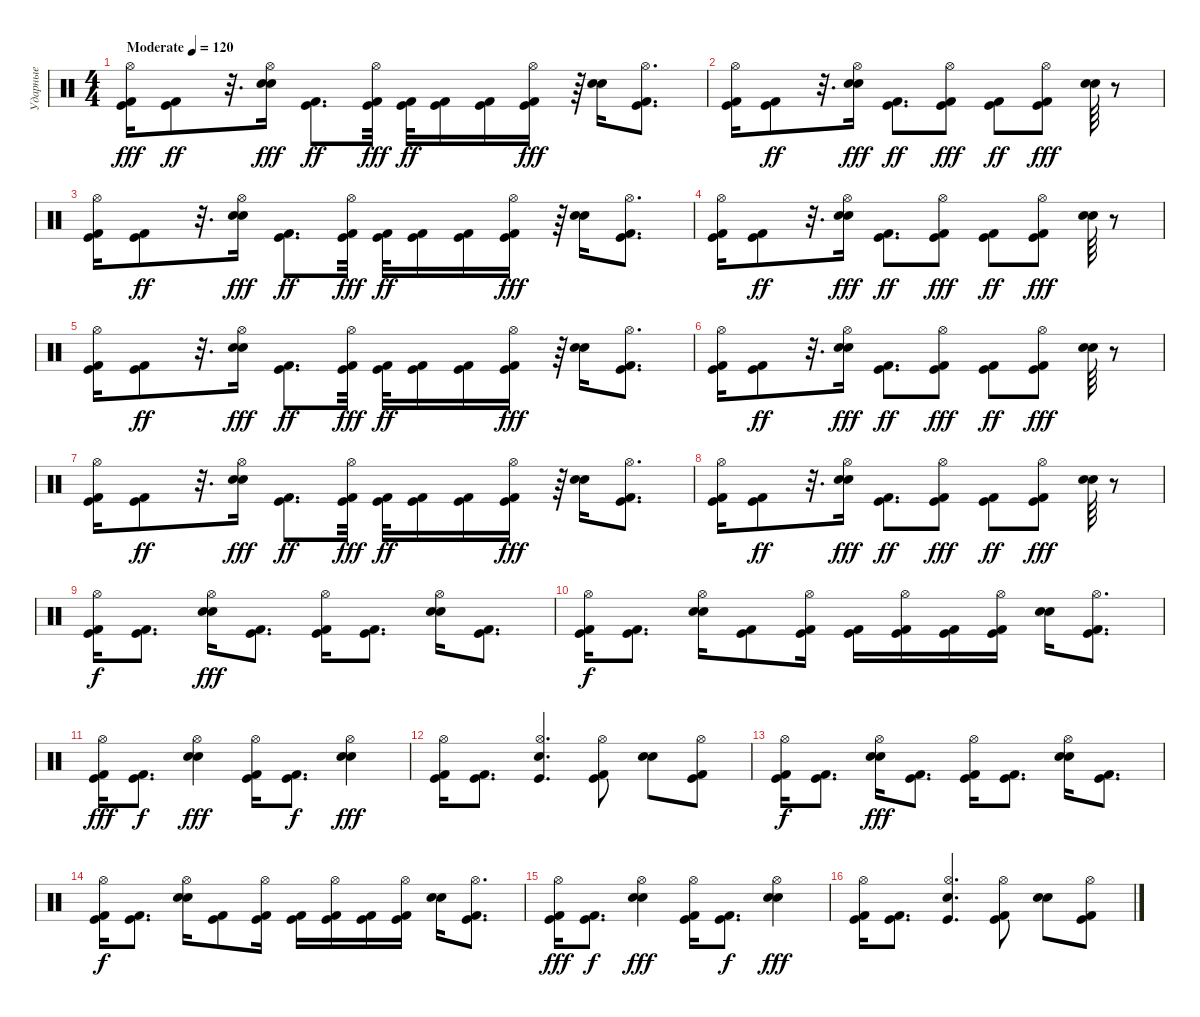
\track ("Ударные" "Ударные") {instrument percussion}
\staff {score}
\articulation defaults
\ts (4 4)
\tempo (120 "Moderate")
\clef neutral
\ks c
("Kick (hit) 2" "Kick (hit)" "Hi-Hat (open)").16{dy fff} ("Kick (hit) 2" "Kick (hit)").8{dy ff} r.32{d} ("Electric Snare (hit)" "Snare (hit) 2" "Hi-Hat (open)").16{dy fff} ("Kick (hit) 2" "Kick (hit)").8{d dy ff} ("Kick (hit) 2" "Kick (hit)" "Hi-Hat (open)").32{dy fff} ("Kick (hit) 2" "Kick (hit)").32{dy ff} ("Kick (hit) 2" "Kick (hit)").16 ("Kick (hit) 2" "Kick (hit)").16 ("Kick (hit) 2" "Kick (hit)" "Hi-Hat (open)").16{dy fff} r.64 ("Snare (hit) 2" "Electric Snare (hit)").16 ("Kick (hit) 2" "Kick (hit)" "Hi-Hat (open)").8{d} |
("Kick (hit) 2" "Kick (hit)" "Hi-Hat (open)").16 ("Kick (hit) 2" "Kick (hit)").8{dy ff} r.32{d} ("Electric Snare (hit)" "Snare (hit) 2" "Hi-Hat (open)").16{dy fff} ("Kick (hit) 2" "Kick (hit)").8{d dy ff} ("Kick (hit) 2" "Kick (hit)" "Hi-Hat (open)").8{dy fff} ("Kick (hit) 2" "Kick (hit)").8{dy ff} ("Kick (hit)" "Kick (hit) 2" "Hi-Hat (open)").8{dy fff} ("Electric Snare (hit)" "Snare (hit) 2").64 r.8 |
("Kick (hit) 2" "Kick (hit)" "Hi-Hat (open)").16 ("Kick (hit) 2" "Kick (hit)").8{dy ff} r.32{d} ("Electric Snare (hit)" "Snare (hit) 2" "Hi-Hat (open)").16{dy fff} ("Kick (hit) 2" "Kick (hit)").8{d dy ff} ("Kick (hit) 2" "Kick (hit)" "Hi-Hat (open)").32{dy fff} ("Kick (hit) 2" "Kick (hit)").32{dy ff} ("Kick (hit) 2" "Kick (hit)").16 ("Kick (hit) 2" "Kick (hit)").16 ("Kick (hit) 2" "Kick (hit)" "Hi-Hat (open)").16{dy fff} r.64 ("Snare (hit) 2" "Electric Snare (hit)").16 ("Kick (hit) 2" "Kick (hit)" "Hi-Hat (open)").8{d} |
("Kick (hit) 2" "Kick (hit)" "Hi-Hat (open)").16 ("Kick (hit) 2" "Kick (hit)").8{dy ff} r.32{d} ("Electric Snare (hit)" "Snare (hit) 2" "Hi-Hat (open)").16{dy fff} ("Kick (hit) 2" "Kick (hit)").8{d dy ff} ("Kick (hit) 2" "Kick (hit)" "Hi-Hat (open)").8{dy fff} ("Kick (hit) 2" "Kick (hit)").8{dy ff} ("Kick (hit)" "Kick (hit) 2" "Hi-Hat (open)").8{dy fff} ("Electric Snare (hit)" "Snare (hit) 2").64 r.8 |
("Kick (hit) 2" "Kick (hit)" "Hi-Hat (open)").16 ("Kick (hit) 2" "Kick (hit)").8{dy ff} r.32{d} ("Electric Snare (hit)" "Snare (hit) 2" "Hi-Hat (open)").16{dy fff} ("Kick (hit) 2" "Kick (hit)").8{d dy ff} ("Kick (hit) 2" "Kick (hit)" "Hi-Hat (open)").32{dy fff} ("Kick (hit) 2" "Kick (hit)").32{dy ff} ("Kick (hit) 2" "Kick (hit)").16 ("Kick (hit) 2" "Kick (hit)").16 ("Kick (hit) 2" "Kick (hit)" "Hi-Hat (open)").16{dy fff} r.64 ("Snare (hit) 2" "Electric Snare (hit)").16 ("Kick (hit) 2" "Kick (hit)" "Hi-Hat (open)").8{d} |
("Kick (hit) 2" "Kick (hit)" "Hi-Hat (open)").16 ("Kick (hit) 2" "Kick (hit)").8{dy ff} r.32{d} ("Electric Snare (hit)" "Snare (hit) 2" "Hi-Hat (open)").16{dy fff} ("Kick (hit) 2" "Kick (hit)").8{d dy ff} ("Kick (hit) 2" "Kick (hit)" "Hi-Hat (open)").8{dy fff} ("Kick (hit) 2" "Kick (hit)").8{dy ff} ("Kick (hit)" "Kick (hit) 2" "Hi-Hat (open)").8{dy fff} ("Electric Snare (hit)" "Snare (hit) 2").64 r.8 |
("Kick (hit) 2" "Kick (hit)" "Hi-Hat (open)").16 ("Kick (hit) 2" "Kick (hit)").8{dy ff} r.32{d} ("Electric Snare (hit)" "Snare (hit) 2" "Hi-Hat (open)").16{dy fff} ("Kick (hit) 2" "Kick (hit)").8{d dy ff} ("Kick (hit) 2" "Kick (hit)" "Hi-Hat (open)").32{dy fff} ("Kick (hit) 2" "Kick (hit)").32{dy ff} ("Kick (hit) 2" "Kick (hit)").16 ("Kick (hit) 2" "Kick (hit)").16 ("Kick (hit) 2" "Kick (hit)" "Hi-Hat (open)").16{dy fff} r.64 ("Snare (hit) 2" "Electric Snare (hit)").16 ("Kick (hit) 2" "Kick (hit)" "Hi-Hat (open)").8{d} |
("Kick (hit) 2" "Kick (hit)" "Hi-Hat (open)").16 ("Kick (hit) 2" "Kick (hit)").8{dy ff} r.32{d} ("Electric Snare (hit)" "Snare (hit) 2" "Hi-Hat (open)").16{dy fff} ("Kick (hit) 2" "Kick (hit)").8{d dy ff} ("Kick (hit) 2" "Kick (hit)" "Hi-Hat (open)").8{dy fff} ("Kick (hit) 2" "Kick (hit)").8{dy ff} ("Kick (hit)" "Kick (hit) 2" "Hi-Hat (open)").8{dy fff} ("Electric Snare (hit)" "Snare (hit) 2").64 r.8 |
("Kick (hit) 2" "Kick (hit)" "Hi-Hat (open)").16{dy f} ("Kick (hit) 2" "Kick (hit)").8{d} ("Snare (hit) 2" "Electric Snare (hit)" "Hi-Hat (open)").16{dy fff} ("Kick (hit) 2" "Kick (hit)").8{d} ("Kick (hit) 2" "Kick (hit)" "Hi-Hat (open)").16 ("Kick (hit) 2" "Kick (hit)").8{d} ("Snare (hit) 2" "Electric Snare (hit)" "Hi-Hat (open)").16 ("Kick (hit) 2" "Kick (hit)").8{d} |
("Kick (hit) 2" "Kick (hit)" "Hi-Hat (open)").16{dy f} ("Kick (hit) 2" "Kick (hit)").8{d} ("Snare (hit) 2" "Electric Snare (hit)" "Hi-Hat (open)").16 ("Kick (hit) 2" "Kick (hit)").8 ("Kick (hit) 2" "Kick (hit)" "Hi-Hat (open)").16 ("Kick (hit) 2" "Kick (hit)").16 ("Kick (hit) 2" "Kick (hit)" "Hi-Hat (open)").16 ("Kick (hit) 2" "Kick (hit)").16 ("Kick (hit) 2" "Kick (hit)" "Hi-Hat (open)").16 ("Snare (hit) 2" "Electric Snare (hit)").16 ("Kick (hit) 2" "Kick (hit)" "Hi-Hat (open)").8{d} |
("Kick (hit) 2" "Kick (hit)" "Hi-Hat (open)").16{dy fff} ("Kick (hit) 2" "Kick (hit)").8{d dy f} ("Snare (hit) 2" "Electric Snare (hit)" "Hi-Hat (open)").4{dy fff} ("Kick (hit) 2" "Kick (hit)" "Hi-Hat (open)").16 ("Kick (hit) 2" "Kick (hit)").8{d dy f} ("Snare (hit) 2" "Electric Snare (hit)" "Hi-Hat (open)").4{dy fff} |
("Kick (hit) 2" "Kick (hit)" "Hi-Hat (open)").16 ("Kick (hit) 2" "Kick (hit)").8{d} ("Kick (hit)" "Electric Snare (hit)" "Hi-Hat (open)").4{d} ("Kick (hit) 2" "Kick (hit)" "Hi-Hat (open)").8 ("Snare (hit) 2" "Electric Snare (hit)").8 ("Kick (hit) 2" "Kick (hit)" "Hi-Hat (open)").8 |
("Kick (hit) 2" "Kick (hit)" "Hi-Hat (open)").16{dy f} ("Kick (hit) 2" "Kick (hit)").8{d} ("Snare (hit) 2" "Electric Snare (hit)" "Hi-Hat (open)").16{dy fff} ("Kick (hit) 2" "Kick (hit)").8{d} ("Kick (hit) 2" "Kick (hit)" "Hi-Hat (open)").16 ("Kick (hit) 2" "Kick (hit)").8{d} ("Snare (hit) 2" "Electric Snare (hit)" "Hi-Hat (open)").16 ("Kick (hit) 2" "Kick (hit)").8{d} |
("Kick (hit) 2" "Kick (hit)" "Hi-Hat (open)").16{dy f} ("Kick (hit) 2" "Kick (hit)").8{d} ("Snare (hit) 2" "Electric Snare (hit)" "Hi-Hat (open)").16 ("Kick (hit) 2" "Kick (hit)").8 ("Kick (hit) 2" "Kick (hit)" "Hi-Hat (open)").16 ("Kick (hit) 2" "Kick (hit)").16 ("Kick (hit) 2" "Kick (hit)" "Hi-Hat (open)").16 ("Kick (hit) 2" "Kick (hit)").16 ("Kick (hit) 2" "Kick (hit)" "Hi-Hat (open)").16 ("Snare (hit) 2" "Electric Snare (hit)").16 ("Kick (hit) 2" "Kick (hit)" "Hi-Hat (open)").8{d} |
("Kick (hit) 2" "Kick (hit)" "Hi-Hat (open)").16{dy fff} ("Kick (hit) 2" "Kick (hit)").8{d dy f} ("Snare (hit) 2" "Electric Snare (hit)" "Hi-Hat (open)").4{dy fff} ("Kick (hit) 2" "Kick (hit)" "Hi-Hat (open)").16 ("Kick (hit) 2" "Kick (hit)").8{d dy f} ("Snare (hit) 2" "Electric Snare (hit)" "Hi-Hat (open)").4{dy fff} |
("Kick (hit) 2" "Kick (hit)" "Hi-Hat (open)").16 ("Kick (hit) 2" "Kick (hit)").8{d} ("Kick (hit)" "Electric Snare (hit)" "Hi-Hat (open)").4{d} ("Kick (hit) 2" "Kick (hit)" "Hi-Hat (open)").8 ("Snare (hit) 2" "Electric Snare (hit)").8 ("Kick (hit) 2" "Kick (hit)" "Hi-Hat (open)").8
